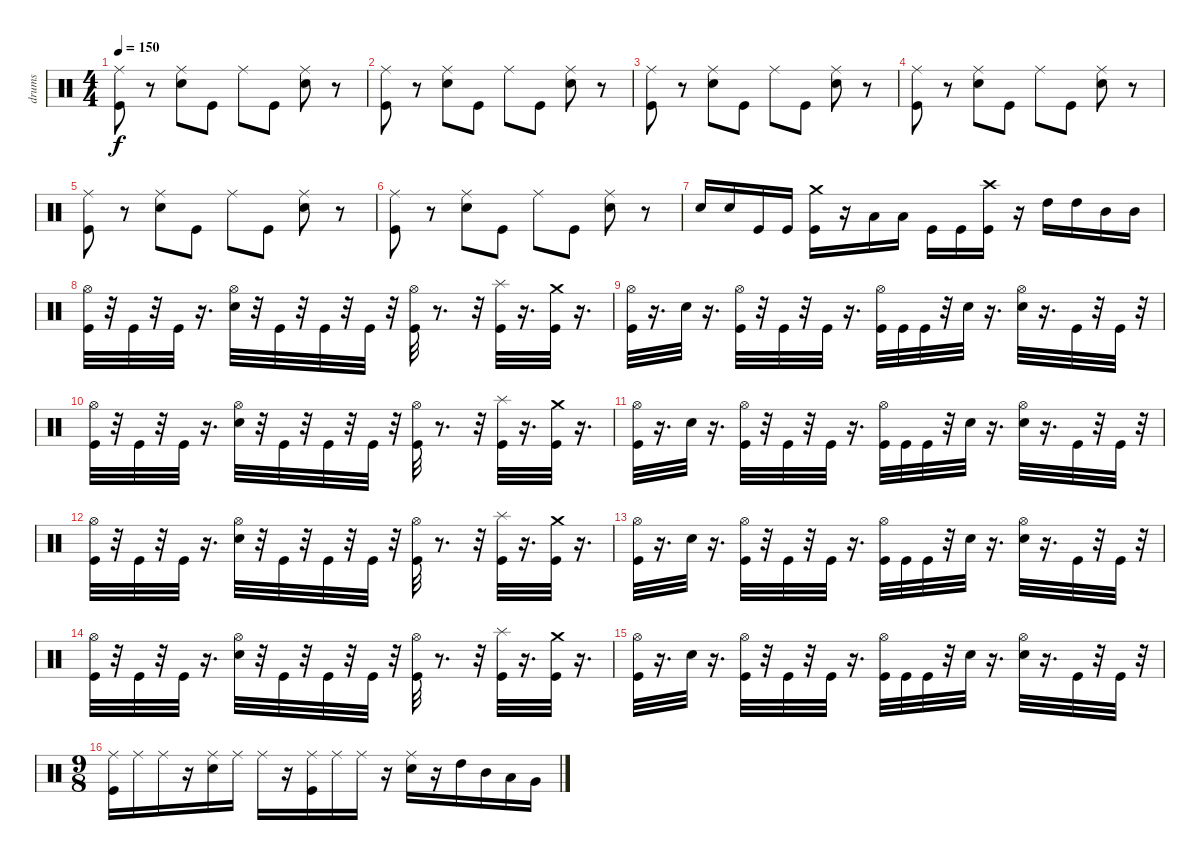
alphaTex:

\track ("drums" "drums") {instrument percussion}
\staff {score}
\articulation defaults
\ts (4 4)
\tempo 150
\clef neutral
\ks c
("Ride (middle)" "Kick (hit)").8{dy f} r.8 ("Ride (middle)" "Electric Snare (hit)").8 "Kick (hit)".8 "Ride (middle)".8 "Kick (hit)".8 ("Ride (middle)" "Electric Snare (hit)").8 r.8 |
("Ride (middle)" "Kick (hit)").8 r.8 ("Ride (middle)" "Electric Snare (hit)").8 "Kick (hit)".8 "Ride (middle)".8 "Kick (hit)".8 ("Ride (middle)" "Electric Snare (hit)").8 r.8 |
("Ride (middle)" "Kick (hit)").8 r.8 ("Ride (middle)" "Electric Snare (hit)").8 "Kick (hit)".8 "Ride (middle)".8 "Kick (hit)".8 ("Ride (middle)" "Electric Snare (hit)").8 r.8 |
("Ride (middle)" "Kick (hit)").8 r.8 ("Ride (middle)" "Electric Snare (hit)").8 "Kick (hit)".8 "Ride (middle)".8 "Kick (hit)".8 ("Ride (middle)" "Electric Snare (hit)").8 r.8 |
("Ride (middle)" "Kick (hit)").8 r.8 ("Ride (middle)" "Electric Snare (hit)").8 "Kick (hit)".8 "Ride (middle)".8 "Kick (hit)".8 ("Ride (middle)" "Electric Snare (hit)").8 r.8 |
("Ride (middle)" "Kick (hit)").8 r.8 ("Ride (middle)" "Electric Snare (hit)").8 "Kick (hit)".8 "Ride (middle)".8 "Kick (hit)".8 ("Ride (middle)" "Electric Snare (hit)").8 r.8 |
"Electric Snare (hit)".16 "Electric Snare (hit)".16 "Kick (hit)".16 "Kick (hit)".16 ("Crash medium (hit)" "Kick (hit)").16 r.16 "Low Tom (hit)".16 "Low Tom (hit)".16 "Kick (hit)".16 "Kick (hit)".16 ("Crash high (hit)" "Kick (hit)").16 r.16 "High Tom (hit)".16 "High Tom (hit)".16 "Mid Tom (hit)".16 "Mid Tom (hit)".16 |
("Hi-Hat (open)" "Kick (hit)").32 r.32 "Kick (hit)".32 r.32 "Kick (hit)".32 r.16{d} ("Hi-Hat (open)" "Electric Snare (hit)").32 r.32 "Kick (hit)".32 r.32 "Kick (hit)".32 r.32 "Kick (hit)".32 r.32 ("Hi-Hat (open)" "Kick (hit)").32 r.8{d} r.32 ("Splash (hit)" "Kick (hit)").32 r.16{d} ("Crash medium (hit)" "Kick (hit)").32 r.16{d} |
("Hi-Hat (open)" "Kick (hit)").32 r.16{d} "Electric Snare (hit)".32 r.16{d} ("Hi-Hat (open)" "Kick (hit)").32 r.32 "Kick (hit)".32 r.32 "Kick (hit)".32 r.16{d} ("Hi-Hat (open)" "Kick (hit)").32 "Kick (hit)".32 "Kick (hit)".32 r.32 "Electric Snare (hit)".32 r.16{d} ("Hi-Hat (open)" "Electric Snare (hit)").32 r.16{d} "Kick (hit)".32 r.32 "Kick (hit)".32 r.32 |
("Hi-Hat (open)" "Kick (hit)").32 r.32 "Kick (hit)".32 r.32 "Kick (hit)".32 r.16{d} ("Hi-Hat (open)" "Electric Snare (hit)").32 r.32 "Kick (hit)".32 r.32 "Kick (hit)".32 r.32 "Kick (hit)".32 r.32 ("Hi-Hat (open)" "Kick (hit)").32 r.8{d} r.32 ("Splash (hit)" "Kick (hit)").32 r.16{d} ("Crash medium (hit)" "Kick (hit)").32 r.16{d} |
("Hi-Hat (open)" "Kick (hit)").32 r.16{d} "Electric Snare (hit)".32 r.16{d} ("Hi-Hat (open)" "Kick (hit)").32 r.32 "Kick (hit)".32 r.32 "Kick (hit)".32 r.16{d} ("Hi-Hat (open)" "Kick (hit)").32 "Kick (hit)".32 "Kick (hit)".32 r.32 "Electric Snare (hit)".32 r.16{d} ("Hi-Hat (open)" "Electric Snare (hit)").32 r.16{d} "Kick (hit)".32 r.32 "Kick (hit)".32 r.32 |
("Hi-Hat (open)" "Kick (hit)").32 r.32 "Kick (hit)".32 r.32 "Kick (hit)".32 r.16{d} ("Hi-Hat (open)" "Electric Snare (hit)").32 r.32 "Kick (hit)".32 r.32 "Kick (hit)".32 r.32 "Kick (hit)".32 r.32 ("Hi-Hat (open)" "Kick (hit)").32 r.8{d} r.32 ("Splash (hit)" "Kick (hit)").32 r.16{d} ("Crash medium (hit)" "Kick (hit)").32 r.16{d} |
("Hi-Hat (open)" "Kick (hit)").32 r.16{d} "Electric Snare (hit)".32 r.16{d} ("Hi-Hat (open)" "Kick (hit)").32 r.32 "Kick (hit)".32 r.32 "Kick (hit)".32 r.16{d} ("Hi-Hat (open)" "Kick (hit)").32 "Kick (hit)".32 "Kick (hit)".32 r.32 "Electric Snare (hit)".32 r.16{d} ("Hi-Hat (open)" "Electric Snare (hit)").32 r.16{d} "Kick (hit)".32 r.32 "Kick (hit)".32 r.32 |
("Hi-Hat (open)" "Kick (hit)").32 r.32 "Kick (hit)".32 r.32 "Kick (hit)".32 r.16{d} ("Hi-Hat (open)" "Electric Snare (hit)").32 r.32 "Kick (hit)".32 r.32 "Kick (hit)".32 r.32 "Kick (hit)".32 r.32 ("Hi-Hat (open)" "Kick (hit)").32 r.8{d} r.32 ("Splash (hit)" "Kick (hit)").32 r.16{d} ("Crash medium (hit)" "Kick (hit)").32 r.16{d} |
("Hi-Hat (open)" "Kick (hit)").32 r.16{d} "Electric Snare (hit)".32 r.16{d} ("Hi-Hat (open)" "Kick (hit)").32 r.32 "Kick (hit)".32 r.32 "Kick (hit)".32 r.16{d} ("Hi-Hat (open)" "Kick (hit)").32 "Kick (hit)".32 "Kick (hit)".32 r.32 "Electric Snare (hit)".32 r.16{d} ("Hi-Hat (open)" "Electric Snare (hit)").32 r.16{d} "Kick (hit)".32 r.32 "Kick (hit)".32 r.32 |
\ts (9 8)
("Ride (middle)" "Kick (hit)").16 "Ride (middle)".16 "Ride (middle)".16 r.16 ("Ride (middle)" "Electric Snare (hit)").16 "Ride (middle)".16 "Ride (middle)".16 r.16 ("Ride (middle)" "Kick (hit)").16 "Ride (middle)".16 "Ride (middle)".16 r.16 ("Ride (middle)" "Electric Snare (hit)").16 r.16 "High Tom (hit)".16 "Mid Tom (hit)".16 "Low Tom (hit)".16 "Very Low Tom (hit)".16
